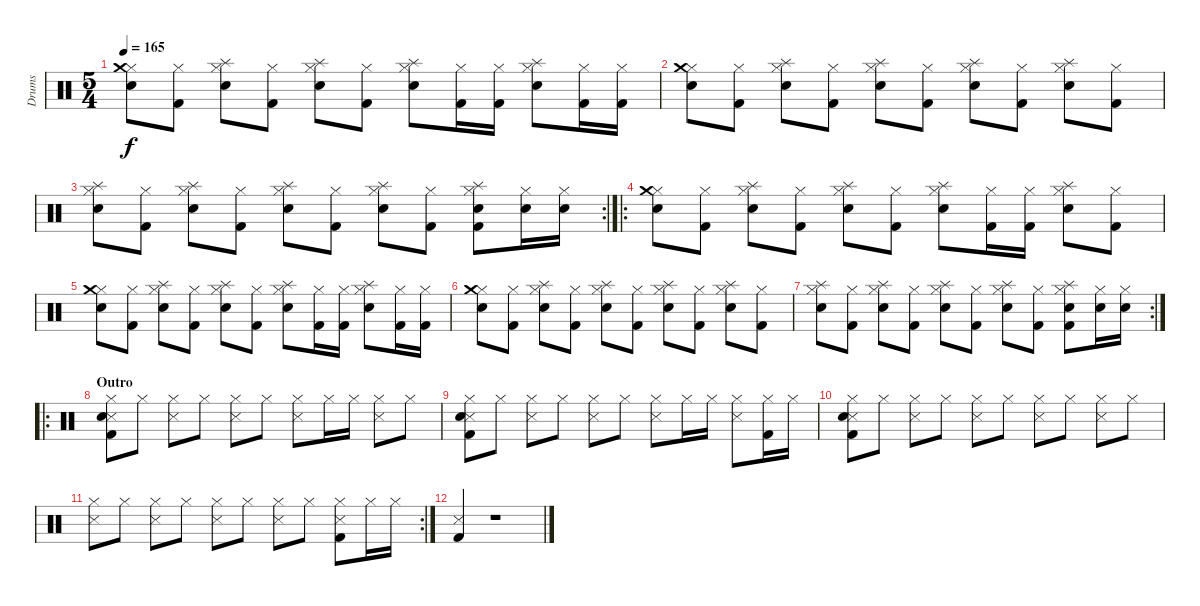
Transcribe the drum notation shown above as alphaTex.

\track ("Drums" "Drums") {instrument percussion}
\staff {score}
\articulation defaults
\ts (5 4)
\tempo 165
\clef neutral
\ks c
("Hi-Hat (closed)" "Crash medium (hit)" "Electric Snare (hit)").8{dy f} ("Hi-Hat (closed)" "Kick (hit) 2").8 ("Hi-Hat (closed)" "Splash (hit)" "Electric Snare (hit)").8 ("Hi-Hat (closed)" "Kick (hit) 2").8 ("Hi-Hat (closed)" "Splash (hit)" "Electric Snare (hit)").8 ("Hi-Hat (closed)" "Kick (hit) 2").8 ("Hi-Hat (closed)" "Splash (hit)" "Electric Snare (hit)").8 ("Hi-Hat (closed)" "Kick (hit) 2").16 ("Hi-Hat (closed)" "Kick (hit) 2").16 ("Hi-Hat (closed)" "Splash (hit)" "Electric Snare (hit)").8 ("Hi-Hat (closed)" "Kick (hit) 2").16 ("Hi-Hat (closed)" "Kick (hit) 2").16 |
("Hi-Hat (closed)" "Crash medium (hit)" "Electric Snare (hit)").8 ("Hi-Hat (closed)" "Kick (hit) 2").8 ("Hi-Hat (closed)" "Splash (hit)" "Electric Snare (hit)").8 ("Hi-Hat (closed)" "Kick (hit) 2").8 ("Hi-Hat (closed)" "Splash (hit)" "Electric Snare (hit)").8 ("Hi-Hat (closed)" "Kick (hit) 2").8 ("Hi-Hat (closed)" "Splash (hit)" "Electric Snare (hit)").8 ("Hi-Hat (closed)" "Kick (hit) 2").8 ("Hi-Hat (closed)" "Splash (hit)" "Electric Snare (hit)").8 ("Hi-Hat (closed)" "Kick (hit) 2").8 |
\rc 2
("Hi-Hat (closed)" "Splash (hit)" "Electric Snare (hit)").8 ("Hi-Hat (closed)" "Kick (hit) 2").8 ("Hi-Hat (closed)" "Splash (hit)" "Electric Snare (hit)").8 ("Hi-Hat (closed)" "Kick (hit) 2").8 ("Hi-Hat (closed)" "Splash (hit)" "Electric Snare (hit)").8 ("Hi-Hat (closed)" "Kick (hit) 2").8 ("Hi-Hat (closed)" "Splash (hit)" "Electric Snare (hit)").8 ("Hi-Hat (closed)" "Kick (hit) 2").8 ("Hi-Hat (closed)" "Splash (hit)" "Electric Snare (hit)" "Kick (hit) 2").8 ("Hi-Hat (closed)" "Electric Snare (hit)").16 ("Hi-Hat (closed)" "Electric Snare (hit)").16 |
\ro
("Hi-Hat (closed)" "Crash medium (hit)" "Electric Snare (hit)").8 ("Hi-Hat (closed)" "Kick (hit) 2").8 ("Hi-Hat (closed)" "Splash (hit)" "Electric Snare (hit)").8 ("Hi-Hat (closed)" "Kick (hit) 2").8 ("Hi-Hat (closed)" "Splash (hit)" "Electric Snare (hit)").8 ("Hi-Hat (closed)" "Kick (hit) 2").8 ("Hi-Hat (closed)" "Splash (hit)" "Electric Snare (hit)").8 ("Hi-Hat (closed)" "Kick (hit) 2").16 ("Hi-Hat (closed)" "Kick (hit) 2").16 ("Hi-Hat (closed)" "Splash (hit)" "Electric Snare (hit)").8 ("Hi-Hat (closed)" "Kick (hit) 2").8 |
("Hi-Hat (closed)" "Crash medium (hit)" "Electric Snare (hit)").8 ("Hi-Hat (closed)" "Kick (hit) 2").8 ("Hi-Hat (closed)" "Splash (hit)" "Electric Snare (hit)").8 ("Hi-Hat (closed)" "Kick (hit) 2").8 ("Hi-Hat (closed)" "Splash (hit)" "Electric Snare (hit)").8 ("Hi-Hat (closed)" "Kick (hit) 2").8 ("Hi-Hat (closed)" "Splash (hit)" "Electric Snare (hit)").8 ("Hi-Hat (closed)" "Kick (hit) 2").16 ("Hi-Hat (closed)" "Kick (hit) 2").16 ("Hi-Hat (closed)" "Splash (hit)" "Electric Snare (hit)").8 ("Hi-Hat (closed)" "Kick (hit) 2").16 ("Hi-Hat (closed)" "Kick (hit) 2").16 |
("Hi-Hat (closed)" "Crash medium (hit)" "Electric Snare (hit)").8 ("Hi-Hat (closed)" "Kick (hit) 2").8 ("Hi-Hat (closed)" "Splash (hit)" "Electric Snare (hit)").8 ("Hi-Hat (closed)" "Kick (hit) 2").8 ("Hi-Hat (closed)" "Splash (hit)" "Electric Snare (hit)").8 ("Hi-Hat (closed)" "Kick (hit) 2").8 ("Hi-Hat (closed)" "Splash (hit)" "Electric Snare (hit)").8 ("Hi-Hat (closed)" "Kick (hit) 2").8 ("Hi-Hat (closed)" "Splash (hit)" "Electric Snare (hit)").8 ("Hi-Hat (closed)" "Kick (hit) 2").8 |
\rc 2
("Hi-Hat (closed)" "Splash (hit)" "Electric Snare (hit)").8 ("Hi-Hat (closed)" "Kick (hit) 2").8 ("Hi-Hat (closed)" "Splash (hit)" "Electric Snare (hit)").8 ("Hi-Hat (closed)" "Kick (hit) 2").8 ("Hi-Hat (closed)" "Splash (hit)" "Electric Snare (hit)").8 ("Hi-Hat (closed)" "Kick (hit) 2").8 ("Hi-Hat (closed)" "Splash (hit)" "Electric Snare (hit)").8 ("Hi-Hat (closed)" "Kick (hit) 2").8 ("Hi-Hat (closed)" "Splash (hit)" "Electric Snare (hit)" "Kick (hit) 2").8 ("Hi-Hat (closed)" "Electric Snare (hit)").16 ("Hi-Hat (closed)" "Electric Snare (hit)").16 |
\ro
\section ("" "Outro")
("Hi-Hat (closed)" "Snare (side stick) 3" "Metronome (bell)" "Kick (hit) 2").8 "Hi-Hat (closed)".8 ("Hi-Hat (closed)" "Snare (side stick) 3").8 "Hi-Hat (closed)".8 ("Hi-Hat (closed)" "Snare (side stick) 3").8 "Hi-Hat (closed)".8 ("Hi-Hat (closed)" "Snare (side stick) 3").8 "Hi-Hat (closed)".16 "Hi-Hat (closed)".16 ("Hi-Hat (closed)" "Snare (side stick) 3").8 "Hi-Hat (closed)".8 |
("Hi-Hat (closed)" "Snare (side stick) 3" "Metronome (bell)" "Kick (hit) 2").8 "Hi-Hat (closed)".8 ("Hi-Hat (closed)" "Snare (side stick) 3").8 "Hi-Hat (closed)".8 ("Hi-Hat (closed)" "Snare (side stick) 3").8 "Hi-Hat (closed)".8 ("Hi-Hat (closed)" "Snare (side stick) 3").8 "Hi-Hat (closed)".16 "Hi-Hat (closed)".16 ("Hi-Hat (closed)" "Snare (side stick) 3").8 ("Hi-Hat (closed)" "Kick (hit) 2").16 "Hi-Hat (closed)".16 |
("Hi-Hat (closed)" "Snare (side stick) 3" "Metronome (bell)" "Kick (hit) 2").8 "Hi-Hat (closed)".8 ("Hi-Hat (closed)" "Snare (side stick) 3").8 "Hi-Hat (closed)".8 ("Hi-Hat (closed)" "Snare (side stick) 3").8 "Hi-Hat (closed)".8 ("Hi-Hat (closed)" "Snare (side stick) 3").8 "Hi-Hat (closed)".8 ("Hi-Hat (closed)" "Snare (side stick) 3").8 "Hi-Hat (closed)".8 |
\rc 2
("Hi-Hat (closed)" "Snare (side stick) 3").8 "Hi-Hat (closed)".8 ("Hi-Hat (closed)" "Snare (side stick) 3").8 "Hi-Hat (closed)".8 ("Hi-Hat (closed)" "Snare (side stick) 3").8 "Hi-Hat (closed)".8 ("Hi-Hat (closed)" "Snare (side stick) 3").8 "Hi-Hat (closed)".8 ("Hi-Hat (closed)" "Snare (side stick) 3" "Kick (hit) 2").8 "Hi-Hat (closed)".16 "Hi-Hat (closed)".16 |
("Snare (side stick) 3" "Kick (hit) 2").4 r.1
